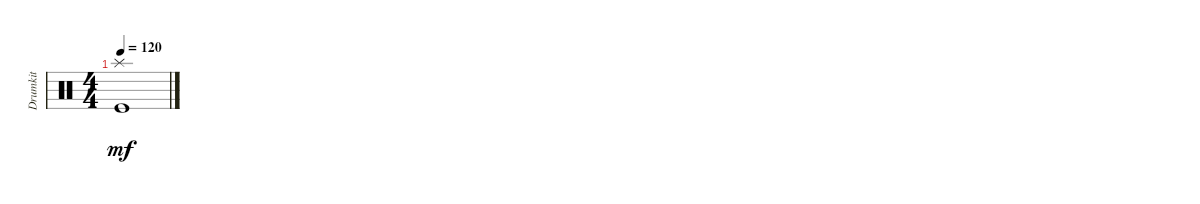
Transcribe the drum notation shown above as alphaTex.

\track ("Drumkit" "Drumkit") {instrument percussion}
\staff {score}
\articulation defaults
\ts (4 4)
\tempo 120
\clef neutral
\ks c
("Splash (hit)" "Kick (hit)").1{dy mf}
